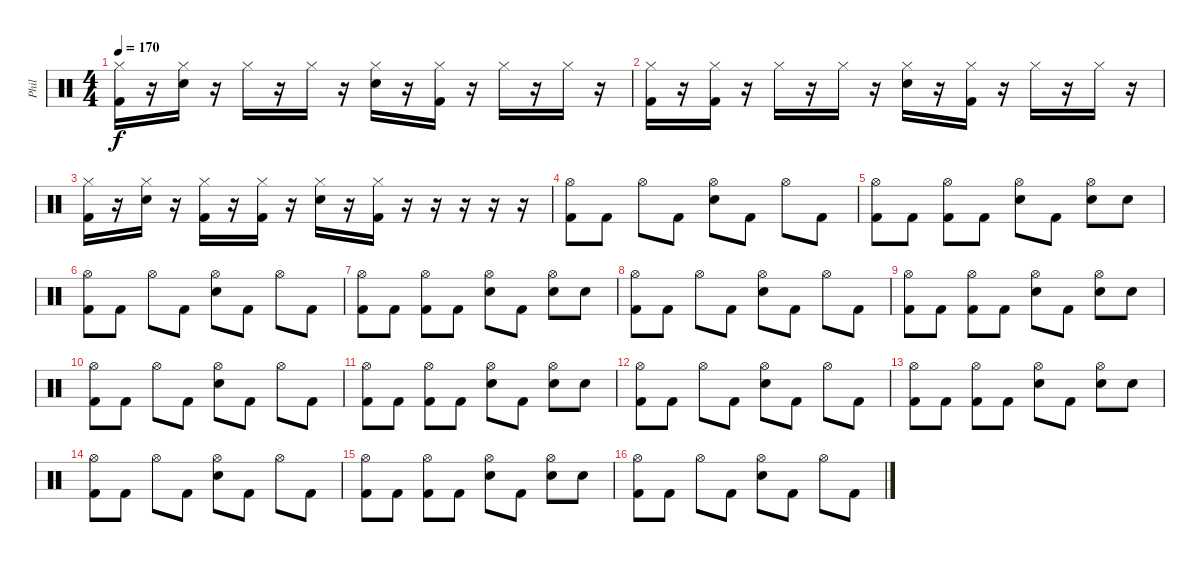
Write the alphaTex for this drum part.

\track ("Phil" "Phil") {instrument percussion}
\staff {score}
\articulation defaults
\ts (4 4)
\tempo 170
\clef neutral
\ks c
("Hi-Hat (closed)" "Kick (hit) 2").16{dy f} r.16 ("Hi-Hat (closed)" "Electric Snare (hit)").16 r.16 "Hi-Hat (closed)".16 r.16 "Hi-Hat (closed)".16 r.16 ("Hi-Hat (closed)" "Electric Snare (hit)").16 r.16 ("Hi-Hat (closed)" "Kick (hit) 2").16 r.16 "Hi-Hat (closed)".16 r.16 "Hi-Hat (closed)".16 r.16 |
("Hi-Hat (closed)" "Kick (hit) 2").16 r.16 ("Hi-Hat (closed)" "Kick (hit) 2").16 r.16 "Hi-Hat (closed)".16 r.16 "Hi-Hat (closed)".16 r.16 ("Hi-Hat (closed)" "Electric Snare (hit)").16 r.16 ("Hi-Hat (closed)" "Kick (hit) 2").16 r.16 "Hi-Hat (closed)".16 r.16 "Hi-Hat (closed)".16 r.16 |
("Hi-Hat (closed)" "Kick (hit) 2").16 r.16 ("Hi-Hat (closed)" "Electric Snare (hit)").16 r.16 ("Hi-Hat (closed)" "Kick (hit) 2").16 r.16 ("Hi-Hat (closed)" "Kick (hit) 2").16 r.16 ("Hi-Hat (closed)" "Electric Snare (hit)").16 r.16 ("Hi-Hat (closed)" "Kick (hit) 2").16 r.16 r.16 r.16 r.16 r.16 |
("Hi-Hat (open)" "Kick (hit) 2").8 "Kick (hit) 2".8 "Hi-Hat (open)".8 "Kick (hit) 2".8 ("Hi-Hat (open)" "Electric Snare (hit)").8 "Kick (hit) 2".8 "Hi-Hat (open)".8 "Kick (hit) 2".8 |
("Hi-Hat (open)" "Kick (hit) 2").8 "Kick (hit) 2".8 ("Hi-Hat (open)" "Kick (hit) 2").8 "Kick (hit) 2".8 ("Hi-Hat (open)" "Electric Snare (hit)").8 "Kick (hit) 2".8 ("Hi-Hat (open)" "Electric Snare (hit)").8 "Electric Snare (hit)".8 |
("Hi-Hat (open)" "Kick (hit) 2").8 "Kick (hit) 2".8 "Hi-Hat (open)".8 "Kick (hit) 2".8 ("Hi-Hat (open)" "Electric Snare (hit)").8 "Kick (hit) 2".8 "Hi-Hat (open)".8 "Kick (hit) 2".8 |
("Hi-Hat (open)" "Kick (hit) 2").8 "Kick (hit) 2".8 ("Hi-Hat (open)" "Kick (hit) 2").8 "Kick (hit) 2".8 ("Hi-Hat (open)" "Electric Snare (hit)").8 "Kick (hit) 2".8 ("Hi-Hat (open)" "Electric Snare (hit)").8 "Electric Snare (hit)".8 |
("Hi-Hat (open)" "Kick (hit) 2").8 "Kick (hit) 2".8 "Hi-Hat (open)".8 "Kick (hit) 2".8 ("Hi-Hat (open)" "Electric Snare (hit)").8 "Kick (hit) 2".8 "Hi-Hat (open)".8 "Kick (hit) 2".8 |
("Hi-Hat (open)" "Kick (hit) 2").8 "Kick (hit) 2".8 ("Hi-Hat (open)" "Kick (hit) 2").8 "Kick (hit) 2".8 ("Hi-Hat (open)" "Electric Snare (hit)").8 "Kick (hit) 2".8 ("Hi-Hat (open)" "Electric Snare (hit)").8 "Electric Snare (hit)".8 |
("Hi-Hat (open)" "Kick (hit) 2").8 "Kick (hit) 2".8 "Hi-Hat (open)".8 "Kick (hit) 2".8 ("Hi-Hat (open)" "Electric Snare (hit)").8 "Kick (hit) 2".8 "Hi-Hat (open)".8 "Kick (hit) 2".8 |
("Hi-Hat (open)" "Kick (hit) 2").8 "Kick (hit) 2".8 ("Hi-Hat (open)" "Kick (hit) 2").8 "Kick (hit) 2".8 ("Hi-Hat (open)" "Electric Snare (hit)").8 "Kick (hit) 2".8 ("Hi-Hat (open)" "Electric Snare (hit)").8 "Electric Snare (hit)".8 |
("Hi-Hat (open)" "Kick (hit) 2").8 "Kick (hit) 2".8 "Hi-Hat (open)".8 "Kick (hit) 2".8 ("Hi-Hat (open)" "Electric Snare (hit)").8 "Kick (hit) 2".8 "Hi-Hat (open)".8 "Kick (hit) 2".8 |
("Hi-Hat (open)" "Kick (hit) 2").8 "Kick (hit) 2".8 ("Hi-Hat (open)" "Kick (hit) 2").8 "Kick (hit) 2".8 ("Hi-Hat (open)" "Electric Snare (hit)").8 "Kick (hit) 2".8 ("Hi-Hat (open)" "Electric Snare (hit)").8 "Electric Snare (hit)".8 |
("Hi-Hat (open)" "Kick (hit) 2").8 "Kick (hit) 2".8 "Hi-Hat (open)".8 "Kick (hit) 2".8 ("Hi-Hat (open)" "Electric Snare (hit)").8 "Kick (hit) 2".8 "Hi-Hat (open)".8 "Kick (hit) 2".8 |
("Hi-Hat (open)" "Kick (hit) 2").8 "Kick (hit) 2".8 ("Hi-Hat (open)" "Kick (hit) 2").8 "Kick (hit) 2".8 ("Hi-Hat (open)" "Electric Snare (hit)").8 "Kick (hit) 2".8 ("Hi-Hat (open)" "Electric Snare (hit)").8 "Electric Snare (hit)".8 |
("Hi-Hat (open)" "Kick (hit) 2").8 "Kick (hit) 2".8 "Hi-Hat (open)".8 "Kick (hit) 2".8 ("Hi-Hat (open)" "Electric Snare (hit)").8 "Kick (hit) 2".8 "Hi-Hat (open)".8 "Kick (hit) 2".8
